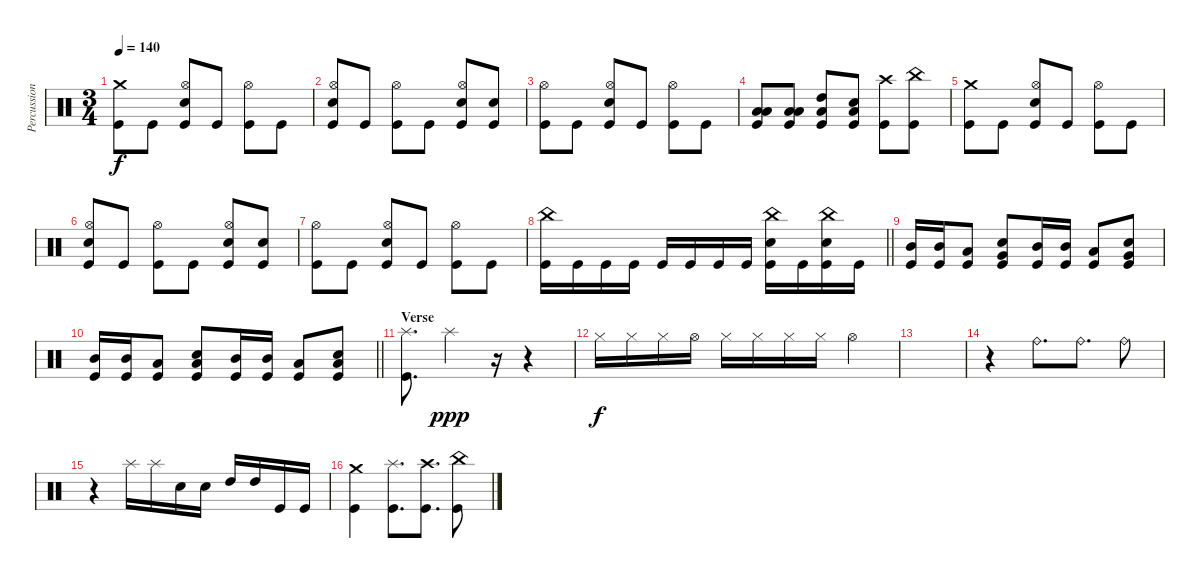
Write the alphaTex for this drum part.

\track ("Percussion" "Percussion") {instrument percussion}
\staff {score}
\articulation defaults
\ts (3 4)
\tempo 140
\clef neutral
\ks c
("Crash medium (hit)" "Kick (hit)").8{dy f} "Kick (hit)".8 ("Hi-Hat (open)" "Electric Snare (hit)" "Kick (hit)").8 "Kick (hit)".8 ("Hi-Hat (open)" "Kick (hit)").8 "Kick (hit)".8 |
("Hi-Hat (open)" "Electric Snare (hit)" "Kick (hit)").8 "Kick (hit)".8 ("Hi-Hat (open)" "Kick (hit)").8 "Kick (hit)".8 ("Hi-Hat (open)" "Electric Snare (hit)" "Kick (hit)").8 ("Electric Snare (hit)" "Kick (hit)").8 |
("Hi-Hat (open)" "Kick (hit)").8 "Kick (hit)".8 ("Hi-Hat (open)" "Electric Snare (hit)" "Kick (hit)").8 "Kick (hit)".8 ("Hi-Hat (open)" "Kick (hit)").8 "Kick (hit)".8 |
("Low Tom (hit)" "Low Floor Tom (hit)" "Kick (hit)").8 ("Low Tom (hit)" "Low Floor Tom (hit)" "Kick (hit)").8 ("High Tom (hit)" "Low Tom (hit)" "Kick (hit)").8 ("Low Floor Tom (hit)" "Electric Snare (hit)" "Kick (hit)").8 ("Crash high (hit)" "Kick (hit)").8 ("China (hit)" "Kick (hit)").8 |
("Crash medium (hit)" "Kick (hit)").8 "Kick (hit)".8 ("Hi-Hat (open)" "Electric Snare (hit)" "Kick (hit)").8 "Kick (hit)".8 ("Hi-Hat (open)" "Kick (hit)").8 "Kick (hit)".8 |
("Hi-Hat (open)" "Electric Snare (hit)" "Kick (hit)").8 "Kick (hit)".8 ("Hi-Hat (open)" "Kick (hit)").8 "Kick (hit)".8 ("Hi-Hat (open)" "Electric Snare (hit)" "Kick (hit)").8 ("Electric Snare (hit)" "Kick (hit)").8 |
("Hi-Hat (open)" "Kick (hit)").8 "Kick (hit)".8 ("Hi-Hat (open)" "Electric Snare (hit)" "Kick (hit)").8 "Kick (hit)".8 ("Hi-Hat (open)" "Kick (hit)").8 "Kick (hit)".8 |
\barLineRight lightlight
("China (hit)" "Kick (hit)").16 "Kick (hit)".16 "Kick (hit)".16 "Kick (hit)".16 "Kick (hit)".16 "Kick (hit)".16 "Kick (hit)".16 "Kick (hit)".16 ("China (hit)" "Electric Snare (hit)" "Kick (hit)").16 "Kick (hit)".16 ("China (hit)" "Electric Snare (hit)" "Kick (hit)").16 "Kick (hit)".16 |
("Mid Tom (hit)" "Kick (hit)").16 ("Mid Tom (hit)" "Kick (hit)").16 ("Low Tom (hit)" "Kick (hit)").8 ("Very Low Tom (hit)" "Electric Snare (hit)" "Kick (hit)").8 ("Mid Tom (hit)" "Kick (hit)").16 ("Mid Tom (hit)" "Kick (hit)").16 ("Low Tom (hit)" "Kick (hit)").8 ("Very Low Tom (hit)" "Electric Snare (hit)" "Kick (hit)").8 |
\barLineRight lightlight
("Mid Tom (hit)" "Kick (hit)").16 ("Mid Tom (hit)" "Kick (hit)").16 ("Low Tom (hit)" "Kick (hit)").8 ("Low Tom (hit)" "Electric Snare (hit)" "Kick (hit)").8 ("Mid Tom (hit)" "Kick (hit)").16 ("Mid Tom (hit)" "Kick (hit)").16 ("Low Tom (hit)" "Kick (hit)").8 ("Low Tom (hit)" "Electric Snare (hit)" "Kick (hit)").8 |
\section ("" "Verse")
("Splash (hit)" "Kick (hit)").8{d} "Splash (hit)".4{dy ppp} r.16 r.4 |
"Hi-Hat (closed)".16{dy f} "Hi-Hat (closed)".16 "Hi-Hat (closed)".16 "Hi-Hat (open)".16 "Hi-Hat (closed)".16 "Hi-Hat (closed)".16 "Hi-Hat (closed)".16 "Hi-Hat (closed)".16 "Hi-Hat (open)".4 |
|
r.4 "Ride (bell)".8{d} "Ride (bell)".8{d} "Ride (bell)".8 |
r.4 "Splash (hit)".16 "Splash (hit)".16 "Electric Snare (hit)".16 "Electric Snare (hit)".16 "High Tom (hit)".16 "High Tom (hit)".16 "Kick (hit)".16 "Kick (hit)".16 |
("Crash medium (hit)" "Kick (hit)").4 ("Splash (hit)" "Kick (hit)").8{d} ("Crash high (hit)" "Kick (hit)").8{d} ("China (hit)" "Kick (hit)").8
